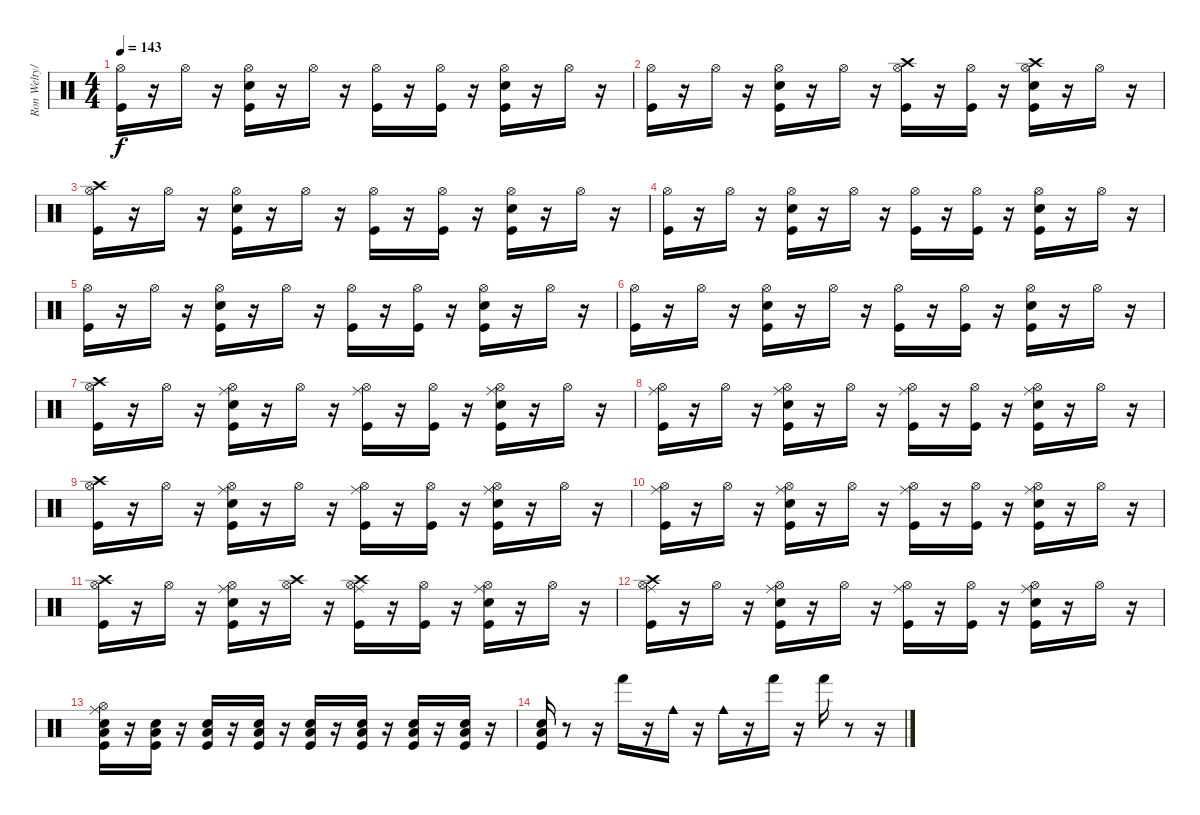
\track ("Ron Welty/Atom Willard" "Ron Welty/") {instrument percussion}
\staff {score}
\articulation defaults
\ts (4 4)
\tempo 143
\clef neutral
\ks c
("Hi-Hat (open)" "Kick (hit)").16{dy f} r.16 "Hi-Hat (open)".16 r.16 ("Snare (hit) 2" "Kick (hit)" "Hi-Hat (open)").16 r.16 "Hi-Hat (open)".16 r.16 ("Kick (hit)" "Hi-Hat (open)").16 r.16 ("Kick (hit)" "Hi-Hat (open)").16 r.16 ("Kick (hit)" "Snare (hit) 2" "Hi-Hat (open)").16 r.16 "Hi-Hat (open)".16 r.16 |
("Hi-Hat (open)" "Kick (hit)").16 r.16 "Hi-Hat (open)".16 r.16 ("Snare (hit) 2" "Kick (hit)" "Hi-Hat (open)").16 r.16 "Hi-Hat (open)".16 r.16 ("Kick (hit)" "Hi-Hat (open)" "Crash high (hit)").16 r.16 ("Kick (hit)" "Hi-Hat (open)").16 r.16 ("Kick (hit)" "Snare (hit) 2" "Hi-Hat (open)" "Crash high (hit)").16 r.16 "Hi-Hat (open)".16 r.16 |
("Hi-Hat (open)" "Kick (hit)" "Crash high (hit)").16 r.16 "Hi-Hat (open)".16 r.16 ("Snare (hit) 2" "Kick (hit)" "Hi-Hat (open)").16 r.16 "Hi-Hat (open)".16 r.16 ("Kick (hit)" "Hi-Hat (open)").16 r.16 ("Kick (hit)" "Hi-Hat (open)").16 r.16 ("Kick (hit)" "Snare (hit) 2" "Hi-Hat (open)").16 r.16 "Hi-Hat (open)".16 r.16 |
("Hi-Hat (open)" "Kick (hit)").16 r.16 "Hi-Hat (open)".16 r.16 ("Snare (hit) 2" "Kick (hit)" "Hi-Hat (open)").16 r.16 "Hi-Hat (open)".16 r.16 ("Kick (hit)" "Hi-Hat (open)").16 r.16 ("Kick (hit)" "Hi-Hat (open)").16 r.16 ("Kick (hit)" "Snare (hit) 2" "Hi-Hat (open)").16 r.16 "Hi-Hat (open)".16 r.16 |
("Hi-Hat (open)" "Kick (hit)").16 r.16 "Hi-Hat (open)".16 r.16 ("Snare (hit) 2" "Kick (hit)" "Hi-Hat (open)").16 r.16 "Hi-Hat (open)".16 r.16 ("Kick (hit)" "Hi-Hat (open)").16 r.16 ("Kick (hit)" "Hi-Hat (open)").16 r.16 ("Kick (hit)" "Snare (hit) 2" "Hi-Hat (open)").16 r.16 "Hi-Hat (open)".16 r.16 |
("Hi-Hat (open)" "Kick (hit)").16 r.16 "Hi-Hat (open)".16 r.16 ("Snare (hit) 2" "Kick (hit)" "Hi-Hat (open)").16 r.16 "Hi-Hat (open)".16 r.16 ("Kick (hit)" "Hi-Hat (open)").16 r.16 ("Kick (hit)" "Hi-Hat (open)").16 r.16 ("Kick (hit)" "Snare (hit) 2" "Hi-Hat (open)").16 r.16 "Hi-Hat (open)".16 r.16 |
("Hi-Hat (open)" "Kick (hit)" "Crash high (hit)").16 r.16 "Hi-Hat (open)".16 r.16 ("Snare (hit) 2" "Kick (hit)" "Hi-Hat (open)" "Ride (middle)").16 r.16 "Hi-Hat (open)".16 r.16 ("Kick (hit)" "Hi-Hat (open)" "Ride (middle)").16 r.16 ("Kick (hit)" "Hi-Hat (open)").16 r.16 ("Kick (hit)" "Snare (hit) 2" "Hi-Hat (open)" "Ride (middle)").16 r.16 "Hi-Hat (open)".16 r.16 |
("Hi-Hat (open)" "Kick (hit)" "Ride (middle)").16 r.16 "Hi-Hat (open)".16 r.16 ("Snare (hit) 2" "Kick (hit)" "Hi-Hat (open)" "Ride (middle)").16 r.16 "Hi-Hat (open)".16 r.16 ("Kick (hit)" "Hi-Hat (open)" "Ride (middle)").16 r.16 ("Kick (hit)" "Hi-Hat (open)").16 r.16 ("Kick (hit)" "Snare (hit) 2" "Hi-Hat (open)" "Ride (middle)").16 r.16 "Hi-Hat (open)".16 r.16 |
("Crash high (hit)" "Kick (hit)" "Hi-Hat (open)").16 r.16 "Hi-Hat (open)".16 r.16 ("Snare (hit) 2" "Kick (hit)" "Hi-Hat (open)" "Ride (middle)").16 r.16 "Hi-Hat (open)".16 r.16 ("Kick (hit)" "Hi-Hat (open)" "Ride (middle)").16 r.16 ("Kick (hit)" "Hi-Hat (open)").16 r.16 ("Kick (hit)" "Snare (hit) 2" "Hi-Hat (open)" "Ride (middle)").16 r.16 "Hi-Hat (open)".16 r.16 |
("Hi-Hat (open)" "Kick (hit)" "Ride (middle)").16 r.16 "Hi-Hat (open)".16 r.16 ("Snare (hit) 2" "Kick (hit)" "Hi-Hat (open)" "Ride (middle)").16 r.16 "Hi-Hat (open)".16 r.16 ("Kick (hit)" "Hi-Hat (open)" "Ride (middle)").16 r.16 ("Kick (hit)" "Hi-Hat (open)").16 r.16 ("Kick (hit)" "Snare (hit) 2" "Hi-Hat (open)" "Ride (middle)").16 r.16 "Hi-Hat (open)".16 r.16 |
("Crash high (hit)" "Kick (hit)" "Hi-Hat (open)").16 r.16 "Hi-Hat (open)".16 r.16 ("Snare (hit) 2" "Kick (hit)" "Hi-Hat (open)" "Ride (middle)").16 r.16 ("Hi-Hat (open)" "Crash high (hit)").16 r.16 ("Kick (hit)" "Hi-Hat (open)" "Ride (middle)" "Crash high (hit)").16 r.16 ("Kick (hit)" "Hi-Hat (open)").16 r.16 ("Kick (hit)" "Snare (hit) 2" "Hi-Hat (open)" "Ride (middle)").16 r.16 "Hi-Hat (open)".16 r.16 |
("Hi-Hat (open)" "Kick (hit)" "Ride (middle)" "Crash high (hit)").16 r.16 "Hi-Hat (open)".16 r.16 ("Snare (hit) 2" "Kick (hit)" "Hi-Hat (open)" "Ride (middle)").16 r.16 "Hi-Hat (open)".16 r.16 ("Kick (hit)" "Hi-Hat (open)" "Ride (middle)").16 r.16 ("Kick (hit)" "Hi-Hat (open)").16 r.16 ("Kick (hit)" "Snare (hit) 2" "Hi-Hat (open)" "Ride (middle)").16 r.16 "Hi-Hat (open)".16 r.16 |
("Ride (middle)" "Snare (hit) 2" "Kick (hit)" "Hi-Hat (open)" "Low Floor Tom (hit)").16 r.16 ("Kick (hit)" "Snare (hit) 2" "Low Floor Tom (hit)").16 r.16 ("Kick (hit)" "Snare (hit) 2" "Low Floor Tom (hit)").16 r.16 ("Kick (hit)" "Snare (hit) 2" "Low Floor Tom (hit)").16 r.16 ("Kick (hit)" "Snare (hit) 2" "Low Floor Tom (hit)").16 r.16 ("Kick (hit)" "Snare (hit) 2" "Low Floor Tom (hit)").16 r.16 ("Kick (hit)" "Snare (hit) 2" "Low Floor Tom (hit)").16 r.16 ("Kick (hit)" "Snare (hit) 2" "Low Floor Tom (hit)").16 r.16 |
("Kick (hit)" "Snare (hit) 2" "Low Floor Tom (hit)").16 r.8 r.16 "Hand (hit)".16 r.16 "Cowbell medium (hit)".16 r.16 "Cowbell medium (hit)".16 r.16 "Hand (hit)".16 r.16 "Hand (hit)".16 r.8 r.16
